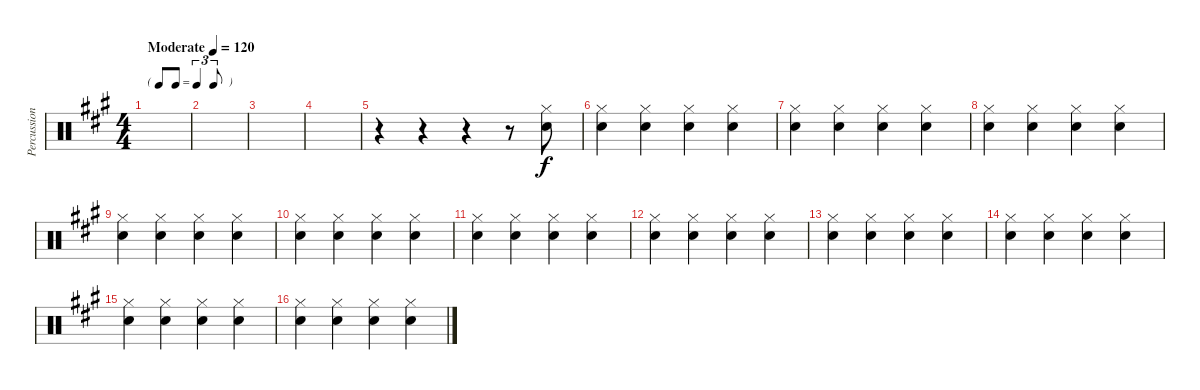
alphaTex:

\track ("Percussions" "Percussion") {instrument percussion}
\staff {score}
\articulation defaults
\ts (4 4)
\tf triplet8th
\tempo (120 "Moderate")
\clef neutral
\ks a
|
|
|
|
r.4 r.4 r.4 r.8 ("Snare (hit) 2" "Hi-Hat (closed)").8 |
("Snare (hit) 2" "Hi-Hat (closed)").4 ("Snare (hit) 2" "Hi-Hat (closed)").4 ("Snare (hit) 2" "Hi-Hat (closed)").4 ("Snare (hit) 2" "Hi-Hat (closed)").4 |
("Snare (hit) 2" "Hi-Hat (closed)").4 ("Snare (hit) 2" "Hi-Hat (closed)").4 ("Snare (hit) 2" "Hi-Hat (closed)").4 ("Snare (hit) 2" "Hi-Hat (closed)").4 |
("Snare (hit) 2" "Hi-Hat (closed)").4 ("Snare (hit) 2" "Hi-Hat (closed)").4 ("Snare (hit) 2" "Hi-Hat (closed)").4 ("Snare (hit) 2" "Hi-Hat (closed)").4 |
("Snare (hit) 2" "Hi-Hat (closed)").4 ("Snare (hit) 2" "Hi-Hat (closed)").4 ("Snare (hit) 2" "Hi-Hat (closed)").4 ("Snare (hit) 2" "Hi-Hat (closed)").4 |
("Snare (hit) 2" "Hi-Hat (closed)").4 ("Snare (hit) 2" "Hi-Hat (closed)").4 ("Snare (hit) 2" "Hi-Hat (closed)").4 ("Snare (hit) 2" "Hi-Hat (closed)").4 |
("Snare (hit) 2" "Hi-Hat (closed)").4 ("Snare (hit) 2" "Hi-Hat (closed)").4 ("Snare (hit) 2" "Hi-Hat (closed)").4 ("Snare (hit) 2" "Hi-Hat (closed)").4 |
("Snare (hit) 2" "Hi-Hat (closed)").4 ("Snare (hit) 2" "Hi-Hat (closed)").4 ("Snare (hit) 2" "Hi-Hat (closed)").4 ("Snare (hit) 2" "Hi-Hat (closed)").4 |
("Snare (hit) 2" "Hi-Hat (closed)").4 ("Snare (hit) 2" "Hi-Hat (closed)").4 ("Snare (hit) 2" "Hi-Hat (closed)").4 ("Snare (hit) 2" "Hi-Hat (closed)").4 |
("Snare (hit) 2" "Hi-Hat (closed)").4 ("Snare (hit) 2" "Hi-Hat (closed)").4 ("Snare (hit) 2" "Hi-Hat (closed)").4 ("Snare (hit) 2" "Hi-Hat (closed)").4 |
("Snare (hit) 2" "Hi-Hat (closed)").4 ("Snare (hit) 2" "Hi-Hat (closed)").4 ("Snare (hit) 2" "Hi-Hat (closed)").4 ("Snare (hit) 2" "Hi-Hat (closed)").4 |
("Snare (hit) 2" "Hi-Hat (closed)").4 ("Snare (hit) 2" "Hi-Hat (closed)").4 ("Snare (hit) 2" "Hi-Hat (closed)").4 ("Snare (hit) 2" "Hi-Hat (closed)").4
